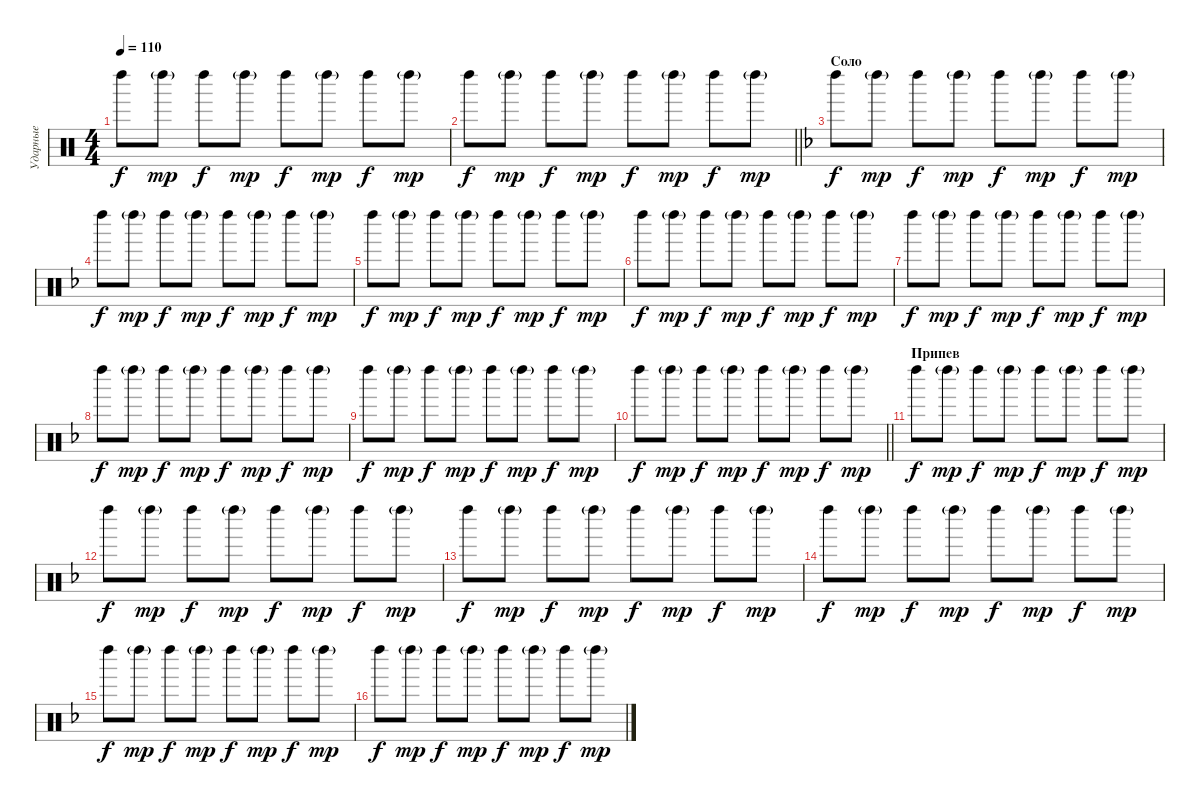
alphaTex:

\track ("Ударные" "Ударные") {instrument percussion}
\staff {score}
\articulation defaults
\ts (4 4)
\tempo 110
\clef neutral
\ks c "Left Maraca (hit)".8{dy f} "Left Maraca (hit)"{g}.8{dy mp} "Left Maraca (hit)".8{dy f} "Left Maraca (hit)"{g}.8{dy mp} "Left Maraca (hit)".8{dy f} "Left Maraca (hit)"{g}.8{dy mp} "Left Maraca (hit)".8{dy f} "Left Maraca (hit)"{g}.8{dy mp}
|
\barLineRight lightlight "Left Maraca (hit)".8{dy f} "Left Maraca (hit)"{g}.8{dy mp} "Left Maraca (hit)".8{dy f} "Left Maraca (hit)"{g}.8{dy mp} "Left Maraca (hit)".8{dy f} "Left Maraca (hit)"{g}.8{dy mp} "Left Maraca (hit)".8{dy f} "Left Maraca (hit)"{g}.8{dy mp}
|
\section ("" "Соло")
\ks dminor "Left Maraca (hit)".8{dy f} "Left Maraca (hit)"{g}.8{dy mp} "Left Maraca (hit)".8{dy f} "Left Maraca (hit)"{g}.8{dy mp} "Left Maraca (hit)".8{dy f} "Left Maraca (hit)"{g}.8{dy mp} "Left Maraca (hit)".8{dy f} "Left Maraca (hit)"{g}.8{dy mp}
|
"Left Maraca (hit)".8{dy f} "Left Maraca (hit)"{g}.8{dy mp} "Left Maraca (hit)".8{dy f} "Left Maraca (hit)"{g}.8{dy mp} "Left Maraca (hit)".8{dy f} "Left Maraca (hit)"{g}.8{dy mp} "Left Maraca (hit)".8{dy f} "Left Maraca (hit)"{g}.8{dy mp} |
"Left Maraca (hit)".8{dy f} "Left Maraca (hit)"{g}.8{dy mp} "Left Maraca (hit)".8{dy f} "Left Maraca (hit)"{g}.8{dy mp} "Left Maraca (hit)".8{dy f} "Left Maraca (hit)"{g}.8{dy mp} "Left Maraca (hit)".8{dy f} "Left Maraca (hit)"{g}.8{dy mp} |
"Left Maraca (hit)".8{dy f} "Left Maraca (hit)"{g}.8{dy mp} "Left Maraca (hit)".8{dy f} "Left Maraca (hit)"{g}.8{dy mp} "Left Maraca (hit)".8{dy f} "Left Maraca (hit)"{g}.8{dy mp} "Left Maraca (hit)".8{dy f} "Left Maraca (hit)"{g}.8{dy mp} |
"Left Maraca (hit)".8{dy f} "Left Maraca (hit)"{g}.8{dy mp} "Left Maraca (hit)".8{dy f} "Left Maraca (hit)"{g}.8{dy mp} "Left Maraca (hit)".8{dy f} "Left Maraca (hit)"{g}.8{dy mp} "Left Maraca (hit)".8{dy f} "Left Maraca (hit)"{g}.8{dy mp} |
"Left Maraca (hit)".8{dy f} "Left Maraca (hit)"{g}.8{dy mp} "Left Maraca (hit)".8{dy f} "Left Maraca (hit)"{g}.8{dy mp} "Left Maraca (hit)".8{dy f} "Left Maraca (hit)"{g}.8{dy mp} "Left Maraca (hit)".8{dy f} "Left Maraca (hit)"{g}.8{dy mp} |
"Left Maraca (hit)".8{dy f} "Left Maraca (hit)"{g}.8{dy mp} "Left Maraca (hit)".8{dy f} "Left Maraca (hit)"{g}.8{dy mp} "Left Maraca (hit)".8{dy f} "Left Maraca (hit)"{g}.8{dy mp} "Left Maraca (hit)".8{dy f} "Left Maraca (hit)"{g}.8{dy mp} |
\barLineRight lightlight "Left Maraca (hit)".8{dy f} "Left Maraca (hit)"{g}.8{dy mp} "Left Maraca (hit)".8{dy f} "Left Maraca (hit)"{g}.8{dy mp} "Left Maraca (hit)".8{dy f} "Left Maraca (hit)"{g}.8{dy mp} "Left Maraca (hit)".8{dy f} "Left Maraca (hit)"{g}.8{dy mp}
|
\section ("" "Припев")
"Left Maraca (hit)".8{dy f} "Left Maraca (hit)"{g}.8{dy mp} "Left Maraca (hit)".8{dy f} "Left Maraca (hit)"{g}.8{dy mp} "Left Maraca (hit)".8{dy f} "Left Maraca (hit)"{g}.8{dy mp} "Left Maraca (hit)".8{dy f} "Left Maraca (hit)"{g}.8{dy mp} |
"Left Maraca (hit)".8{dy f} "Left Maraca (hit)"{g}.8{dy mp} "Left Maraca (hit)".8{dy f} "Left Maraca (hit)"{g}.8{dy mp} "Left Maraca (hit)".8{dy f} "Left Maraca (hit)"{g}.8{dy mp} "Left Maraca (hit)".8{dy f} "Left Maraca (hit)"{g}.8{dy mp} |
"Left Maraca (hit)".8{dy f} "Left Maraca (hit)"{g}.8{dy mp} "Left Maraca (hit)".8{dy f} "Left Maraca (hit)"{g}.8{dy mp} "Left Maraca (hit)".8{dy f} "Left Maraca (hit)"{g}.8{dy mp} "Left Maraca (hit)".8{dy f} "Left Maraca (hit)"{g}.8{dy mp} |
"Left Maraca (hit)".8{dy f} "Left Maraca (hit)"{g}.8{dy mp} "Left Maraca (hit)".8{dy f} "Left Maraca (hit)"{g}.8{dy mp} "Left Maraca (hit)".8{dy f} "Left Maraca (hit)"{g}.8{dy mp} "Left Maraca (hit)".8{dy f} "Left Maraca (hit)"{g}.8{dy mp} |
"Left Maraca (hit)".8{dy f} "Left Maraca (hit)"{g}.8{dy mp} "Left Maraca (hit)".8{dy f} "Left Maraca (hit)"{g}.8{dy mp} "Left Maraca (hit)".8{dy f} "Left Maraca (hit)"{g}.8{dy mp} "Left Maraca (hit)".8{dy f} "Left Maraca (hit)"{g}.8{dy mp} |
"Left Maraca (hit)".8{dy f} "Left Maraca (hit)"{g}.8{dy mp} "Left Maraca (hit)".8{dy f} "Left Maraca (hit)"{g}.8{dy mp} "Left Maraca (hit)".8{dy f} "Left Maraca (hit)"{g}.8{dy mp} "Left Maraca (hit)".8{dy f} "Left Maraca (hit)"{g}.8{dy mp}
